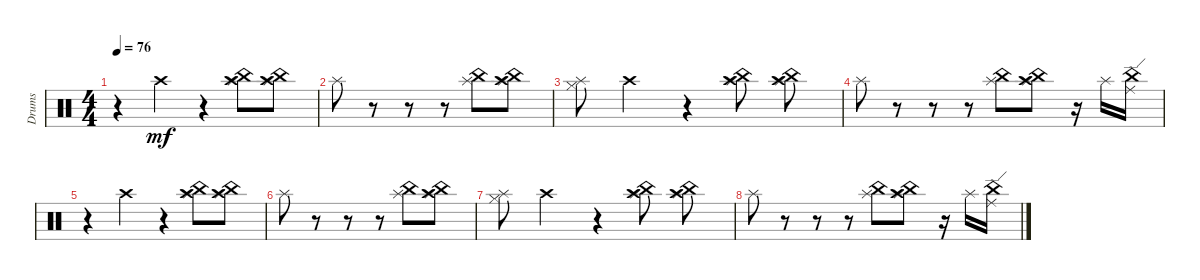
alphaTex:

\track ("Drumkit" "Drums") {instrument percussion}
\staff {score}
\articulation defaults
\ts (4 4)
\tempo 76
\clef neutral
\ks c
r.4{dy mf} "Crash high (hit)".4 r.4 ("Crash high (hit)" "China (hit)" "Splash (hit)").8 ("Crash high (hit)" "China (hit)" "Splash (hit)").8 |
"Splash (hit)".8 r.8 r.8 r.8 ("China (hit)" "Splash (hit)").8 ("China (hit)" "Splash (hit)" "Crash high (hit)").8 |
("Hi-Hat (closed)" "Splash (hit)").8 "Crash high (hit)".4 r.4 ("Crash high (hit)" "China (hit)" "Splash (hit)").8 ("Crash high (hit)" "China (hit)" "Splash (hit)").8 |
"Splash (hit)".8 r.8 r.8 r.8 ("China (hit)" "Splash (hit)").8 ("China (hit)" "Splash (hit)" "Crash high (hit)").8 r.16 "Splash (hit)".16 ("China (hit)" "Ride (edge)").16 |
r.4 "Crash high (hit)".4 r.4 ("Crash high (hit)" "China (hit)" "Splash (hit)").8 ("Crash high (hit)" "China (hit)" "Splash (hit)").8 |
"Splash (hit)".8 r.8 r.8 r.8 ("China (hit)" "Splash (hit)").8 ("China (hit)" "Splash (hit)" "Crash high (hit)").8 |
("Hi-Hat (closed)" "Splash (hit)").8 "Crash high (hit)".4 r.4 ("Crash high (hit)" "China (hit)" "Splash (hit)").8 ("Crash high (hit)" "China (hit)" "Splash (hit)").8 |
"Splash (hit)".8 r.8 r.8 r.8 ("China (hit)" "Splash (hit)").8 ("China (hit)" "Splash (hit)" "Crash high (hit)").8 r.16 "Splash (hit)".16 ("China (hit)" "Ride (edge)").16
